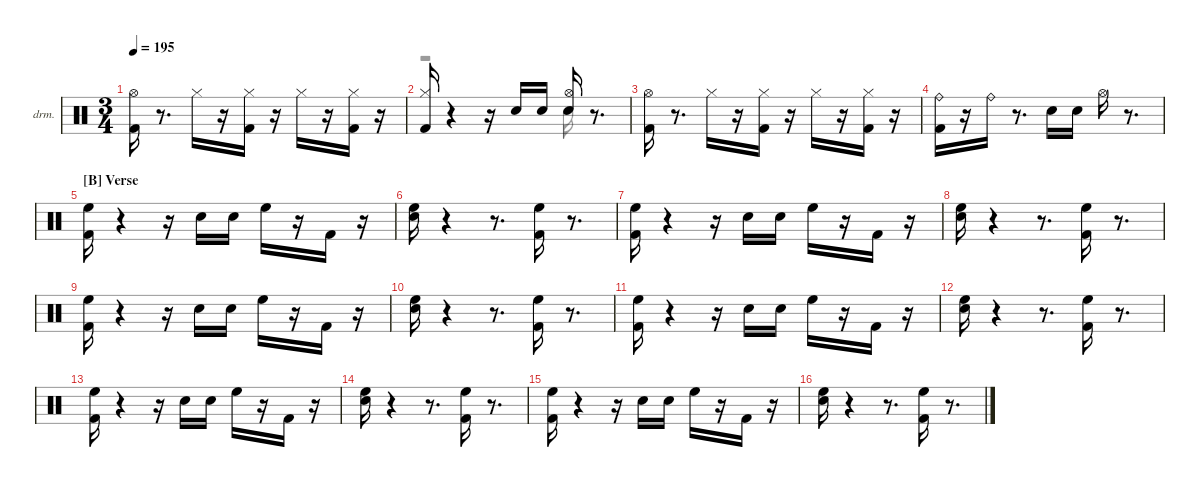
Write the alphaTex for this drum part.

\hideDynamics
\bracketExtendMode nobrackets
\firstSystemTrackNameOrientation horizontal
\track ("Drums" "drm.") {instrument percussion}
\staff {score}
\articulation defaults
\voice
\ts (3 4)
\tempo 195
\clef neutral
\ks aminor
("Kick (hit) 2" "Hi-Hat (open)"{acc #}).16{dy ff} r.8{d} "Hi-Hat (closed)"{acc #}.16{dy f} r.16 ("Kick (hit) 2" "Hi-Hat (closed)"{acc #}).16{dy ppp} r.16 "Hi-Hat (closed)"{acc #}.16{dy f} r.16 ("Kick (hit) 2" "Hi-Hat (closed)"{acc #}).16{dy ppp} r.16 |
("Kick (hit) 2" "Hi-Hat (closed)"{acc #}).16{dy ff} r.4 r.16 "Snare (hit) 2".16{dy pp} "Snare (hit) 2".16{dy ppp} ("Snare (hit) 2" "Hi-Hat (open)"{acc #}).16{dy ff} r.8{d} |
("Kick (hit) 2" "Hi-Hat (open)"{acc #}).16 r.8{d} "Hi-Hat (closed)"{acc #}.16{dy f} r.16 ("Kick (hit) 2" "Hi-Hat (closed)"{acc #}).16 r.16 "Hi-Hat (closed)"{acc #}.16 r.16 ("Kick (hit) 2" "Hi-Hat (closed)"{acc #}).16{dy mp} r.16 |
("Kick (hit) 2" "Ride (bell)").16{dy ff} r.16 "Ride (bell)".16{dy f} r.8{d} "Snare (hit) 2".16 "Snare (hit) 2".16{dy mp} "Hi-Hat (open)"{acc #}.16{dy ff} r.8{d} |
\section ("B" "Verse")
("Kick (hit) 2" "High Floor Tom (hit)").16 r.4 r.16 "Snare (hit) 2".16{dy mp} "Snare (hit) 2".16{dy pp} "High Floor Tom (hit)".16{dy mf} r.16 "Kick (hit) 2".16{dy f} r.16 |
("Snare (hit) 2" "High Floor Tom (hit)").16 r.4 r.8{d} ("Kick (hit) 2" "High Floor Tom (hit)").16 r.8{d} |
("Kick (hit) 2" "High Floor Tom (hit)").16{dy ff} r.4 r.16 "Snare (hit) 2".16{dy mp} "Snare (hit) 2".16{dy pp} "High Floor Tom (hit)".16{dy mf} r.16 "Kick (hit) 2".16{dy f} r.16 |
("Snare (hit) 2" "High Floor Tom (hit)").16{dy ff} r.4 r.8{d} ("Kick (hit) 2" "High Floor Tom (hit)").16{dy mf} r.8{d} |
("Kick (hit) 2" "High Floor Tom (hit)").16{dy ff} r.4 r.16 "Snare (hit) 2".16{dy mp} "Snare (hit) 2".16{dy pp} "High Floor Tom (hit)".16{dy mf} r.16 "Kick (hit) 2".16{dy f} r.16 |
("Snare (hit) 2" "High Floor Tom (hit)").16{dy ff} r.4 r.8{d} ("Kick (hit) 2" "High Floor Tom (hit)").16{dy f} r.8{d} |
("Kick (hit) 2" "High Floor Tom (hit)").16{dy ff} r.4 r.16 "Snare (hit) 2".16{dy mp} "Snare (hit) 2".16{dy pp} "High Floor Tom (hit)".16{dy mf} r.16 "Kick (hit) 2".16{dy f} r.16 |
("Snare (hit) 2" "High Floor Tom (hit)").16 r.4 r.8{d} ("Kick (hit) 2" "High Floor Tom (hit)").16{dy mf} r.8{d} |
("Kick (hit) 2" "High Floor Tom (hit)").16{dy ff} r.4 r.16 "Snare (hit) 2".16{dy mp} "Snare (hit) 2".16{dy pp} "High Floor Tom (hit)".16{dy mf} r.16 "Kick (hit) 2".16{dy f} r.16 |
("Snare (hit) 2" "High Floor Tom (hit)").16 r.4 r.8{d} ("Kick (hit) 2" "High Floor Tom (hit)").16 r.8{d} |
("Kick (hit) 2" "High Floor Tom (hit)").16{dy ff} r.4 r.16 "Snare (hit) 2".16{dy mp} "Snare (hit) 2".16{dy pp} "High Floor Tom (hit)".16{dy mf} r.16 "Kick (hit) 2".16{dy f} r.16 |
("Snare (hit) 2" "High Floor Tom (hit)").16{dy ff} r.4 r.8{d} ("Kick (hit) 2" "High Floor Tom (hit)").16{dy mf} r.8{d}
\voice
\clef neutral
\ottava regular
\simile none
\ks aminor
|
r.2 "Snare (hit) 2".16 |
|
|
|
|
|
|
|
|
|
|
|
|
|
